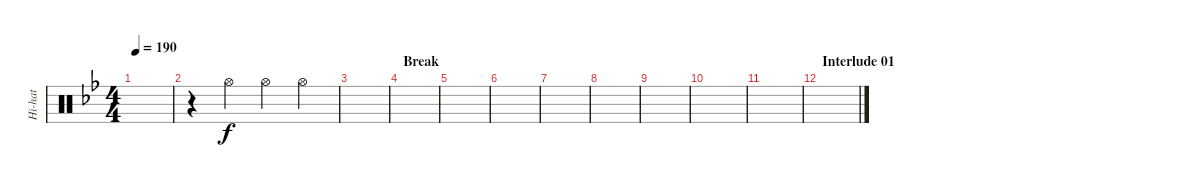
\track ("Hi-hat" "Hi-hat") {instrument percussion}
\staff {score}
\articulation defaults
\ts (4 4)
\tempo 190
\clef neutral
\ks bb
|
r.4 "Hi-Hat (open)".4 "Hi-Hat (open)".4 "Hi-Hat (open)".4 |
|
\section ("" "Break")
|
|
|
|
|
|
|
|
\section ("" "Interlude 01")
